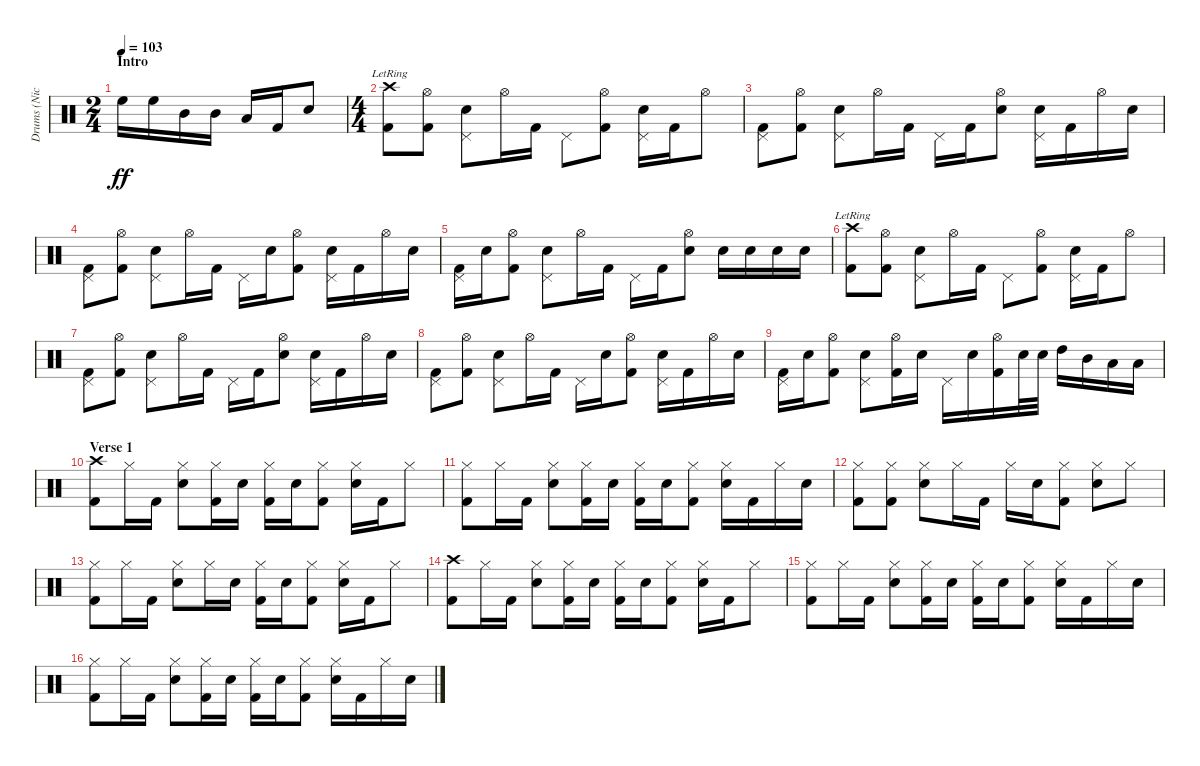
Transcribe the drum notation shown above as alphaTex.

\track ("Drums (Nick Oshiro)" "Drums (Nic") {instrument percussion}
\staff {score}
\articulation defaults
\ts (2 4)
\section ("" "Intro")
\tempo 103
\clef neutral
\ks c "High Floor Tom (hit)".16{dy ff balance 0} "High Floor Tom (hit)".16 "Mid Tom (hit)".16{balance 16} "Mid Tom (hit)".16 "Low Tom (hit)".16{balance 8} "Kick (hit) 2".16 "Snare (hit) 2".8
|
\ts (4 4)
("Crash high (hit)"{lr} "Kick (hit) 2").8 ("Hi-Hat (open)" "Kick (hit) 2").8 ("Pedal Hi-Hat (hit)" "Snare (hit) 2").8 "Hi-Hat (open)".16 "Kick (hit) 2".16 "Pedal Hi-Hat (hit)".8 ("Hi-Hat (open)" "Kick (hit) 2").8 ("Pedal Hi-Hat (hit)" "Snare (hit) 2").16 "Kick (hit) 2".16 "Hi-Hat (open)".8 |
("Pedal Hi-Hat (hit)" "Kick (hit) 2").8 ("Hi-Hat (open)" "Kick (hit) 2").8 ("Pedal Hi-Hat (hit)" "Snare (hit) 2").8 "Hi-Hat (open)".16 "Kick (hit) 2".16 "Pedal Hi-Hat (hit)".16 "Kick (hit) 2".16 ("Hi-Hat (open)" "Snare (hit) 2").8 ("Pedal Hi-Hat (hit)" "Snare (hit) 2").16 "Kick (hit) 2".16 "Hi-Hat (open)".16 "Snare (hit) 2".16 |
("Pedal Hi-Hat (hit)" "Kick (hit) 2").8 ("Hi-Hat (open)" "Kick (hit) 2").8 ("Pedal Hi-Hat (hit)" "Snare (hit) 2").8 "Hi-Hat (open)".16 "Kick (hit) 2".16 "Pedal Hi-Hat (hit)".16 "Snare (hit) 2".16 ("Hi-Hat (open)" "Kick (hit) 2").8 ("Pedal Hi-Hat (hit)" "Snare (hit) 2").16 "Kick (hit) 2".16 "Hi-Hat (open)".16 "Snare (hit) 2".16 |
("Pedal Hi-Hat (hit)" "Kick (hit) 2").16 "Snare (hit) 2".16 ("Hi-Hat (open)" "Kick (hit) 2").8 ("Pedal Hi-Hat (hit)" "Snare (hit) 2").8 "Hi-Hat (open)".16 "Kick (hit) 2".16 "Pedal Hi-Hat (hit)".16 "Kick (hit) 2".16 ("Hi-Hat (open)" "Snare (hit) 2").8 "Snare (hit) 2".16 "Snare (hit) 2".16 "Snare (hit) 2".16 "Snare (hit) 2".16 |
("Crash high (hit)"{lr} "Kick (hit) 2").8 ("Hi-Hat (open)" "Kick (hit) 2").8 ("Pedal Hi-Hat (hit)" "Snare (hit) 2").8 "Hi-Hat (open)".16 "Kick (hit) 2".16 "Pedal Hi-Hat (hit)".8 ("Hi-Hat (open)" "Kick (hit) 2").8 ("Pedal Hi-Hat (hit)" "Snare (hit) 2").16 "Kick (hit) 2".16 "Hi-Hat (open)".8 |
("Pedal Hi-Hat (hit)" "Kick (hit) 2").8 ("Hi-Hat (open)" "Kick (hit) 2").8 ("Pedal Hi-Hat (hit)" "Snare (hit) 2").8 "Hi-Hat (open)".16 "Kick (hit) 2".16 "Pedal Hi-Hat (hit)".16 "Kick (hit) 2".16 ("Hi-Hat (open)" "Snare (hit) 2").8 ("Pedal Hi-Hat (hit)" "Snare (hit) 2").16 "Kick (hit) 2".16 "Hi-Hat (open)".16 "Snare (hit) 2".16 |
("Pedal Hi-Hat (hit)" "Kick (hit) 2").8 ("Hi-Hat (open)" "Kick (hit) 2").8 ("Pedal Hi-Hat (hit)" "Snare (hit) 2").8 "Hi-Hat (open)".16 "Kick (hit) 2".16 "Pedal Hi-Hat (hit)".16 "Snare (hit) 2".16 ("Hi-Hat (open)" "Kick (hit) 2").8 ("Pedal Hi-Hat (hit)" "Snare (hit) 2").16 "Kick (hit) 2".16 "Hi-Hat (open)".16 "Snare (hit) 2".16 |
("Pedal Hi-Hat (hit)" "Kick (hit) 2").16 "Snare (hit) 2".16 ("Hi-Hat (open)" "Kick (hit) 2").8 ("Pedal Hi-Hat (hit)" "Snare (hit) 2").8 ("Hi-Hat (open)" "Kick (hit) 2").16 "Snare (hit) 2".16 "Pedal Hi-Hat (hit)".16 "Snare (hit) 2".16 ("Hi-Hat (open)" "Kick (hit) 2").16 "Snare (hit) 2".32 "Snare (hit) 2".32 "High Tom (hit)".16 "Mid Tom (hit)".16 "Low Tom (hit)".16 "Low Tom (hit)".16 |
\section ("" "Verse 1")
("Crash high (hit)" "Kick (hit) 2").8 "Hi-Hat (closed)".16 "Kick (hit) 2".16 ("Hi-Hat (closed)" "Snare (hit) 2").8 ("Hi-Hat (closed)" "Kick (hit) 2").16 "Snare (hit) 2".16 ("Hi-Hat (closed)" "Kick (hit) 2").16 "Snare (hit) 2".16 ("Hi-Hat (closed)" "Kick (hit) 2").8 ("Hi-Hat (closed)" "Snare (hit) 2").16 "Kick (hit) 2".16 "Hi-Hat (closed)".8 |
("Hi-Hat (closed)" "Kick (hit) 2").8 "Hi-Hat (closed)".16 "Kick (hit) 2".16 ("Hi-Hat (closed)" "Snare (hit) 2").8 ("Hi-Hat (closed)" "Kick (hit) 2").16 "Snare (hit) 2".16 ("Hi-Hat (closed)" "Kick (hit) 2").16 "Snare (hit) 2".16 ("Hi-Hat (closed)" "Kick (hit) 2").8 ("Hi-Hat (closed)" "Snare (hit) 2").16 "Kick (hit) 2".16 "Hi-Hat (closed)".16 "Snare (hit) 2".16 |
("Hi-Hat (closed)" "Kick (hit) 2").8 ("Hi-Hat (closed)" "Kick (hit) 2").8 ("Hi-Hat (closed)" "Snare (hit) 2").8 "Hi-Hat (closed)".16 "Kick (hit) 2".16 "Hi-Hat (closed)".16 "Snare (hit) 2".16 ("Hi-Hat (closed)" "Kick (hit) 2").8 ("Hi-Hat (closed)" "Snare (hit) 2").8 "Hi-Hat (closed)".8 |
("Hi-Hat (closed)" "Kick (hit) 2").8 "Hi-Hat (closed)".16 "Kick (hit) 2".16 ("Hi-Hat (closed)" "Snare (hit) 2").8 "Hi-Hat (closed)".16 "Snare (hit) 2".16 ("Hi-Hat (closed)" "Kick (hit) 2").16 "Snare (hit) 2".16 ("Hi-Hat (closed)" "Kick (hit) 2").8 ("Hi-Hat (closed)" "Snare (hit) 2").16 "Kick (hit) 2".16 "Hi-Hat (closed)".8 |
("Crash high (hit)" "Kick (hit) 2").8 "Hi-Hat (closed)".16 "Kick (hit) 2".16 ("Hi-Hat (closed)" "Snare (hit) 2").8 ("Hi-Hat (closed)" "Kick (hit) 2").16 "Snare (hit) 2".16 ("Hi-Hat (closed)" "Kick (hit) 2").16 "Snare (hit) 2".16 ("Hi-Hat (closed)" "Kick (hit) 2").8 ("Hi-Hat (closed)" "Snare (hit) 2").16 "Kick (hit) 2".16 "Hi-Hat (closed)".8 |
("Hi-Hat (closed)" "Kick (hit) 2").8 "Hi-Hat (closed)".16 "Kick (hit) 2".16 ("Hi-Hat (closed)" "Snare (hit) 2").8 ("Hi-Hat (closed)" "Kick (hit) 2").16 "Snare (hit) 2".16 ("Hi-Hat (closed)" "Kick (hit) 2").16 "Snare (hit) 2".16 ("Hi-Hat (closed)" "Kick (hit) 2").8 ("Hi-Hat (closed)" "Snare (hit) 2").16 "Kick (hit) 2".16 "Hi-Hat (closed)".16 "Snare (hit) 2".16 |
("Hi-Hat (closed)" "Kick (hit) 2").8 "Hi-Hat (closed)".16 "Kick (hit) 2".16 ("Hi-Hat (closed)" "Snare (hit) 2").8 ("Hi-Hat (closed)" "Kick (hit) 2").16 "Snare (hit) 2".16 ("Hi-Hat (closed)" "Kick (hit) 2").16 "Snare (hit) 2".16 ("Hi-Hat (closed)" "Kick (hit) 2").8 ("Hi-Hat (closed)" "Snare (hit) 2").16 "Kick (hit) 2".16 "Hi-Hat (closed)".16 "Snare (hit) 2".16
